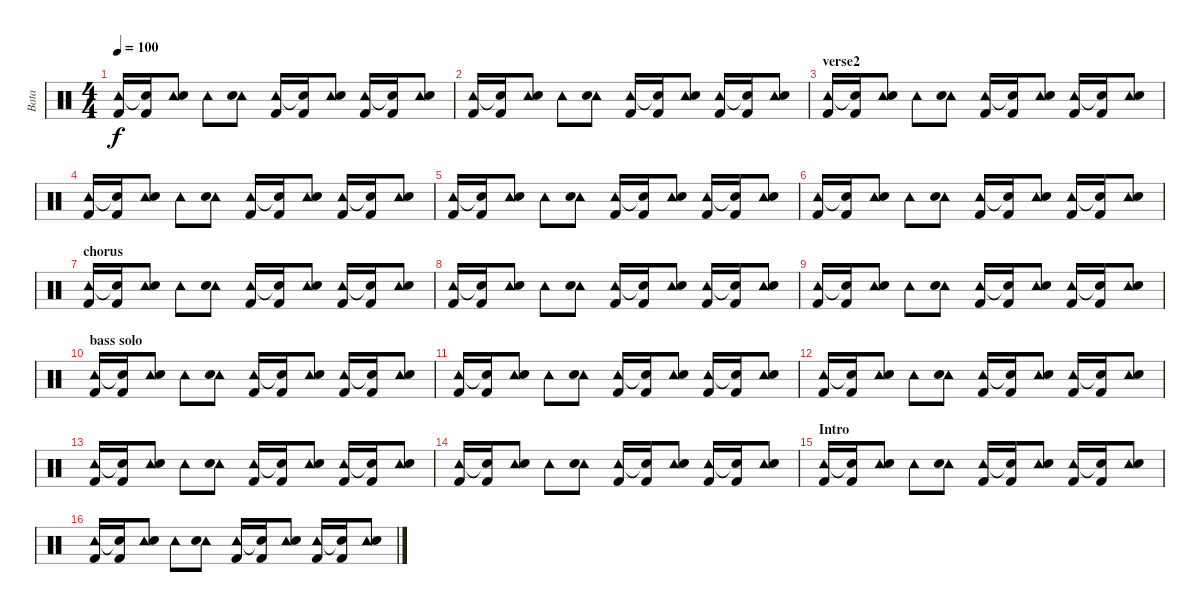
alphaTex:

\track ("Bata" "Bata") {instrument percussion}
\staff {score}
\articulation defaults
\ts (4 4)
\tempo 100
\clef neutral
\ks c
("Tambourine (hit)" "Kick (hit) 2").16{dy f} ("Snare (hit)"{t} "Kick (hit) 2").16 ("Tambourine (hit)" "Snare (hit) 2").8 "Tambourine (hit)".8 ("Tambourine (hit)" "Snare (hit) 2").8 ("Tambourine (hit)" "Kick (hit) 2").16 ("Snare (hit)"{t} "Kick (hit) 2").16 ("Tambourine (hit)" "Snare (hit) 2").8 ("Tambourine (hit)" "Kick (hit) 2").16 ("Snare (hit)"{t} "Kick (hit) 2").16 ("Tambourine (hit)" "Snare (hit) 2").8 |
("Tambourine (hit)" "Kick (hit) 2").16 ("Snare (hit)"{t} "Kick (hit) 2").16 ("Tambourine (hit)" "Snare (hit) 2").8 "Tambourine (hit)".8 ("Tambourine (hit)" "Snare (hit) 2").8 ("Tambourine (hit)" "Kick (hit) 2").16 ("Snare (hit)"{t} "Kick (hit) 2").16 ("Tambourine (hit)" "Snare (hit) 2").8 ("Tambourine (hit)" "Kick (hit) 2").16 ("Snare (hit)"{t} "Kick (hit) 2").16 ("Tambourine (hit)" "Snare (hit) 2").8 |
\section ("" "verse2")
("Tambourine (hit)" "Kick (hit) 2").16 ("Snare (hit)"{t} "Kick (hit) 2").16 ("Tambourine (hit)" "Snare (hit) 2").8 "Tambourine (hit)".8 ("Tambourine (hit)" "Snare (hit) 2").8 ("Tambourine (hit)" "Kick (hit) 2").16 ("Snare (hit)"{t} "Kick (hit) 2").16 ("Tambourine (hit)" "Snare (hit) 2").8 ("Tambourine (hit)" "Kick (hit) 2").16 ("Snare (hit)"{t} "Kick (hit) 2").16 ("Tambourine (hit)" "Snare (hit) 2").8 |
("Tambourine (hit)" "Kick (hit) 2").16 ("Snare (hit)"{t} "Kick (hit) 2").16 ("Tambourine (hit)" "Snare (hit) 2").8 "Tambourine (hit)".8 ("Tambourine (hit)" "Snare (hit) 2").8 ("Tambourine (hit)" "Kick (hit) 2").16 ("Snare (hit)"{t} "Kick (hit) 2").16 ("Tambourine (hit)" "Snare (hit) 2").8 ("Tambourine (hit)" "Kick (hit) 2").16 ("Snare (hit)"{t} "Kick (hit) 2").16 ("Tambourine (hit)" "Snare (hit) 2").8 |
("Tambourine (hit)" "Kick (hit) 2").16 ("Snare (hit)"{t} "Kick (hit) 2").16 ("Tambourine (hit)" "Snare (hit) 2").8 "Tambourine (hit)".8 ("Tambourine (hit)" "Snare (hit) 2").8 ("Tambourine (hit)" "Kick (hit) 2").16 ("Snare (hit)"{t} "Kick (hit) 2").16 ("Tambourine (hit)" "Snare (hit) 2").8 ("Tambourine (hit)" "Kick (hit) 2").16 ("Snare (hit)"{t} "Kick (hit) 2").16 ("Tambourine (hit)" "Snare (hit) 2").8 |
("Tambourine (hit)" "Kick (hit) 2").16 ("Snare (hit)"{t} "Kick (hit) 2").16 ("Tambourine (hit)" "Snare (hit) 2").8 "Tambourine (hit)".8 ("Tambourine (hit)" "Snare (hit) 2").8 ("Tambourine (hit)" "Kick (hit) 2").16 ("Snare (hit)"{t} "Kick (hit) 2").16 ("Tambourine (hit)" "Snare (hit) 2").8 ("Tambourine (hit)" "Kick (hit) 2").16 ("Snare (hit)"{t} "Kick (hit) 2").16 ("Tambourine (hit)" "Snare (hit) 2").8 |
\section ("" "chorus")
("Tambourine (hit)" "Kick (hit) 2").16 ("Snare (hit)"{t} "Kick (hit) 2").16 ("Tambourine (hit)" "Snare (hit) 2").8 "Tambourine (hit)".8 ("Tambourine (hit)" "Snare (hit) 2").8 ("Tambourine (hit)" "Kick (hit) 2").16 ("Snare (hit)"{t} "Kick (hit) 2").16 ("Tambourine (hit)" "Snare (hit) 2").8 ("Tambourine (hit)" "Kick (hit) 2").16 ("Snare (hit)"{t} "Kick (hit) 2").16 ("Tambourine (hit)" "Snare (hit) 2").8 |
("Tambourine (hit)" "Kick (hit) 2").16 ("Snare (hit)"{t} "Kick (hit) 2").16 ("Tambourine (hit)" "Snare (hit) 2").8 "Tambourine (hit)".8 ("Tambourine (hit)" "Snare (hit) 2").8 ("Tambourine (hit)" "Kick (hit) 2").16 ("Snare (hit)"{t} "Kick (hit) 2").16 ("Tambourine (hit)" "Snare (hit) 2").8 ("Tambourine (hit)" "Kick (hit) 2").16 ("Snare (hit)"{t} "Kick (hit) 2").16 ("Tambourine (hit)" "Snare (hit) 2").8 |
("Tambourine (hit)" "Kick (hit) 2").16 ("Snare (hit)"{t} "Kick (hit) 2").16 ("Tambourine (hit)" "Snare (hit) 2").8 "Tambourine (hit)".8 ("Tambourine (hit)" "Snare (hit) 2").8 ("Tambourine (hit)" "Kick (hit) 2").16 ("Snare (hit)"{t} "Kick (hit) 2").16 ("Tambourine (hit)" "Snare (hit) 2").8 ("Tambourine (hit)" "Kick (hit) 2").16 ("Snare (hit)"{t} "Kick (hit) 2").16 ("Tambourine (hit)" "Snare (hit) 2").8 |
\section ("" "bass solo")
("Tambourine (hit)" "Kick (hit) 2").16 ("Snare (hit)"{t} "Kick (hit) 2").16 ("Tambourine (hit)" "Snare (hit) 2").8 "Tambourine (hit)".8 ("Tambourine (hit)" "Snare (hit) 2").8 ("Tambourine (hit)" "Kick (hit) 2").16 ("Snare (hit)"{t} "Kick (hit) 2").16 ("Tambourine (hit)" "Snare (hit) 2").8 ("Tambourine (hit)" "Kick (hit) 2").16 ("Snare (hit)"{t} "Kick (hit) 2").16 ("Tambourine (hit)" "Snare (hit) 2").8 |
("Tambourine (hit)" "Kick (hit) 2").16 ("Snare (hit)"{t} "Kick (hit) 2").16 ("Tambourine (hit)" "Snare (hit) 2").8 "Tambourine (hit)".8 ("Tambourine (hit)" "Snare (hit) 2").8 ("Tambourine (hit)" "Kick (hit) 2").16 ("Snare (hit)"{t} "Kick (hit) 2").16 ("Tambourine (hit)" "Snare (hit) 2").8 ("Tambourine (hit)" "Kick (hit) 2").16 ("Snare (hit)"{t} "Kick (hit) 2").16 ("Tambourine (hit)" "Snare (hit) 2").8 |
("Tambourine (hit)" "Kick (hit) 2").16 ("Snare (hit)"{t} "Kick (hit) 2").16 ("Tambourine (hit)" "Snare (hit) 2").8 "Tambourine (hit)".8 ("Tambourine (hit)" "Snare (hit) 2").8 ("Tambourine (hit)" "Kick (hit) 2").16 ("Snare (hit)"{t} "Kick (hit) 2").16 ("Tambourine (hit)" "Snare (hit) 2").8 ("Tambourine (hit)" "Kick (hit) 2").16 ("Snare (hit)"{t} "Kick (hit) 2").16 ("Tambourine (hit)" "Snare (hit) 2").8 |
("Tambourine (hit)" "Kick (hit) 2").16 ("Snare (hit)"{t} "Kick (hit) 2").16 ("Tambourine (hit)" "Snare (hit) 2").8 "Tambourine (hit)".8 ("Tambourine (hit)" "Snare (hit) 2").8 ("Tambourine (hit)" "Kick (hit) 2").16 ("Snare (hit)"{t} "Kick (hit) 2").16 ("Tambourine (hit)" "Snare (hit) 2").8 ("Tambourine (hit)" "Kick (hit) 2").16 ("Snare (hit)"{t} "Kick (hit) 2").16 ("Tambourine (hit)" "Snare (hit) 2").8 |
("Tambourine (hit)" "Kick (hit) 2").16 ("Snare (hit)"{t} "Kick (hit) 2").16 ("Tambourine (hit)" "Snare (hit) 2").8 "Tambourine (hit)".8 ("Tambourine (hit)" "Snare (hit) 2").8 ("Tambourine (hit)" "Kick (hit) 2").16 ("Snare (hit)"{t} "Kick (hit) 2").16 ("Tambourine (hit)" "Snare (hit) 2").8 ("Tambourine (hit)" "Kick (hit) 2").16 ("Snare (hit)"{t} "Kick (hit) 2").16 ("Tambourine (hit)" "Snare (hit) 2").8 |
\section ("" "Intro")
("Tambourine (hit)" "Kick (hit) 2").16 ("Snare (hit)"{t} "Kick (hit) 2").16 ("Tambourine (hit)" "Snare (hit) 2").8 "Tambourine (hit)".8 ("Tambourine (hit)" "Snare (hit) 2").8 ("Tambourine (hit)" "Kick (hit) 2").16 ("Snare (hit)"{t} "Kick (hit) 2").16 ("Tambourine (hit)" "Snare (hit) 2").8 ("Tambourine (hit)" "Kick (hit) 2").16 ("Snare (hit)"{t} "Kick (hit) 2").16 ("Tambourine (hit)" "Snare (hit) 2").8 |
("Tambourine (hit)" "Kick (hit) 2").16 ("Snare (hit)"{t} "Kick (hit) 2").16 ("Tambourine (hit)" "Snare (hit) 2").8 "Tambourine (hit)".8 ("Tambourine (hit)" "Snare (hit) 2").8 ("Tambourine (hit)" "Kick (hit) 2").16 ("Snare (hit)"{t} "Kick (hit) 2").16 ("Tambourine (hit)" "Snare (hit) 2").8 ("Tambourine (hit)" "Kick (hit) 2").16 ("Snare (hit)"{t} "Kick (hit) 2").16 ("Tambourine (hit)" "Snare (hit) 2").8
